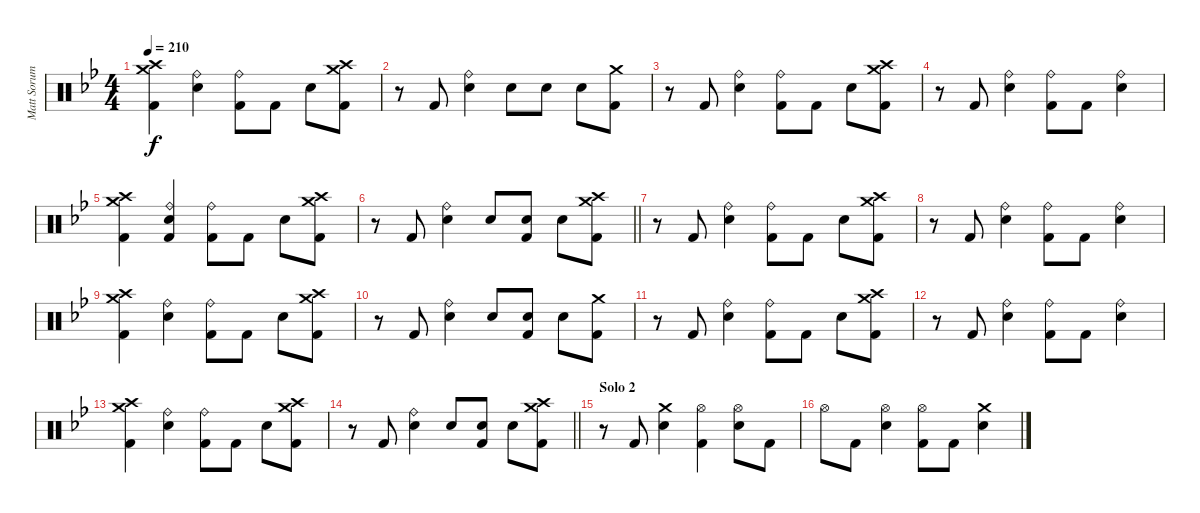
\track ("Matt Sorum - Drums" "Matt Sorum") {instrument percussion}
\staff {score}
\articulation defaults
\ts (4 4)
\tempo 210
\clef neutral
\ks bb
("Crash medium (hit)" "Crash high (hit)" "Kick (hit) 2").4{dy f} ("Ride (bell)" "Snare (hit) 2").4 ("Ride (bell)" "Kick (hit) 2").8 "Kick (hit) 2".8 "Snare (hit) 2".8 ("Crash medium (hit)" "Crash high (hit)" "Kick (hit) 2").8 |
r.8 "Kick (hit) 2".8 ("Ride (bell)" "Snare (hit) 2").4 "Snare (hit) 2".8 "Snare (hit) 2".8 "Snare (hit) 2".8 ("Crash medium (hit)" "Kick (hit) 2").8 |
r.8 "Kick (hit) 2".8 ("Ride (bell)" "Snare (hit) 2").4 ("Ride (bell)" "Kick (hit) 2").8 "Kick (hit) 2".8 "Snare (hit) 2".8 ("Crash medium (hit)" "Crash high (hit)" "Kick (hit) 2").8 |
r.8 "Kick (hit) 2".8 ("Ride (bell)" "Snare (hit) 2").4 ("Ride (bell)" "Kick (hit) 2").8 "Kick (hit) 2".8 ("Ride (bell)" "Snare (hit) 2").4 |
("Crash medium (hit)" "Crash high (hit)" "Kick (hit) 2").4 ("Ride (bell)" "Snare (hit) 2" "Kick (hit) 2").4 ("Ride (bell)" "Kick (hit) 2").8 "Kick (hit) 2".8 "Snare (hit) 2".8 ("Crash medium (hit)" "Crash high (hit)" "Kick (hit) 2").8 |
\barLineRight lightlight
r.8 "Kick (hit) 2".8 ("Ride (bell)" "Snare (hit) 2").4 "Snare (hit) 2".8 ("Snare (hit) 2" "Kick (hit) 2").8 "Snare (hit) 2".8 ("Crash medium (hit)" "Crash high (hit)" "Kick (hit) 2").8 |
r.8 "Kick (hit) 2".8 ("Ride (bell)" "Snare (hit) 2").4 ("Ride (bell)" "Kick (hit) 2").8 "Kick (hit) 2".8 "Snare (hit) 2".8 ("Crash medium (hit)" "Crash high (hit)" "Kick (hit) 2").8 |
r.8 "Kick (hit) 2".8 ("Ride (bell)" "Snare (hit) 2").4 ("Ride (bell)" "Kick (hit) 2").8 "Kick (hit) 2".8 ("Ride (bell)" "Snare (hit) 2").4 |
("Crash medium (hit)" "Crash high (hit)" "Kick (hit) 2").4 ("Ride (bell)" "Snare (hit) 2").4 ("Ride (bell)" "Kick (hit) 2").8 "Kick (hit) 2".8 "Snare (hit) 2".8 ("Crash medium (hit)" "Crash high (hit)" "Kick (hit) 2").8 |
r.8 "Kick (hit) 2".8 ("Ride (bell)" "Snare (hit) 2").4 "Snare (hit) 2".8 ("Snare (hit) 2" "Kick (hit) 2").8 "Snare (hit) 2".8 ("Crash medium (hit)" "Kick (hit) 2").8 |
r.8 "Kick (hit) 2".8 ("Ride (bell)" "Snare (hit) 2").4 ("Ride (bell)" "Kick (hit) 2").8 "Kick (hit) 2".8 "Snare (hit) 2".8 ("Crash medium (hit)" "Crash high (hit)" "Kick (hit) 2").8 |
r.8 "Kick (hit) 2".8 ("Ride (bell)" "Snare (hit) 2").4 ("Ride (bell)" "Kick (hit) 2").8 "Kick (hit) 2".8 ("Ride (bell)" "Snare (hit) 2").4 |
("Crash medium (hit)" "Crash high (hit)" "Kick (hit) 2").4 ("Ride (bell)" "Snare (hit) 2").4 ("Ride (bell)" "Kick (hit) 2").8 "Kick (hit) 2".8 "Snare (hit) 2".8 ("Crash medium (hit)" "Crash high (hit)" "Kick (hit) 2").8 |
\barLineRight lightlight
r.8 "Kick (hit) 2".8 ("Ride (bell)" "Snare (hit) 2").4 "Snare (hit) 2".8 ("Snare (hit) 2" "Kick (hit) 2").8 "Snare (hit) 2".8 ("Crash medium (hit)" "Crash high (hit)" "Kick (hit) 2").8 |
\section ("" "Solo 2")
r.8 "Kick (hit) 2".8 ("Crash medium (hit)" "Snare (hit) 2").4 ("Hi-Hat (open)" "Kick (hit) 2").4 ("Hi-Hat (open)" "Snare (hit) 2").8 "Kick (hit) 2".8 |
"Hi-Hat (open)".8 "Kick (hit) 2".8 ("Hi-Hat (open)" "Snare (hit) 2").4 ("Hi-Hat (open)" "Kick (hit) 2").8 "Kick (hit) 2".8 ("Crash medium (hit)" "Snare (hit) 2").4
